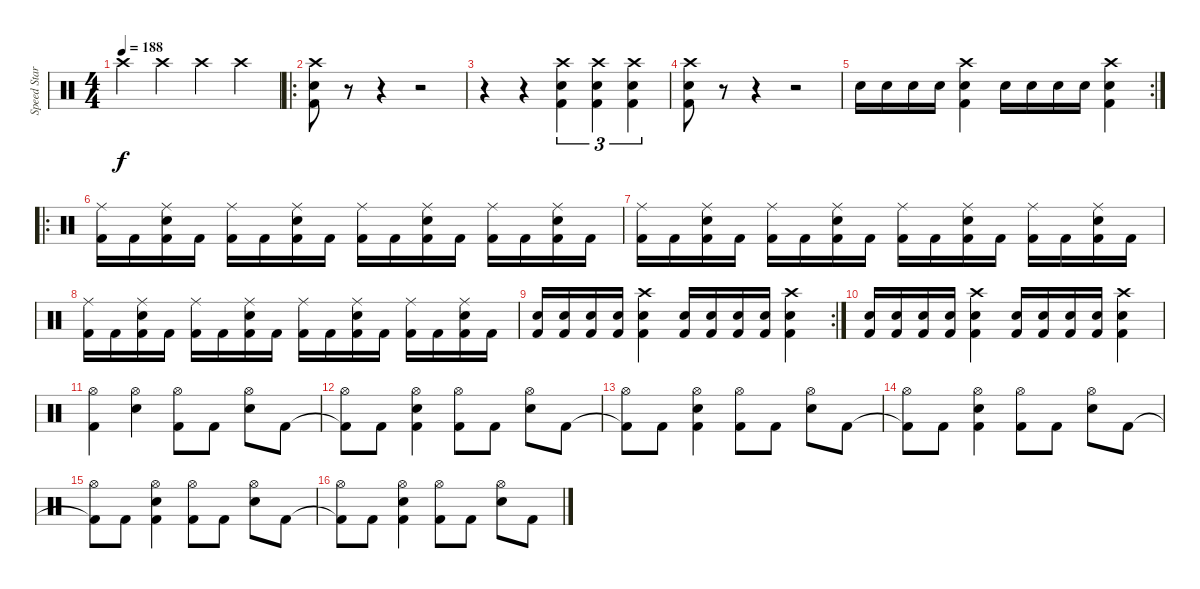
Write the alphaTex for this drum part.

\track ("Speed Star Sypan Joe" "Speed Star") {instrument percussion}
\staff {score}
\articulation defaults
\ts (4 4)
\tempo 188
\clef neutral
\ks c "Crash high (hit)".4{dy f} "Crash high (hit)".4 "Crash high (hit)".4 "Crash high (hit)".4
|
\ro
("Electric Snare (hit)" "Kick (hit) 2" "Crash high (hit)").8 r.8 r.4 r.2 |
r.4 r.4 ("Kick (hit) 2" "Electric Snare (hit)" "Crash high (hit)").4{tu (3 2)} ("Kick (hit) 2" "Electric Snare (hit)" "Crash high (hit)").4{tu (3 2)} ("Electric Snare (hit)" "Kick (hit) 2" "Crash high (hit)").4{tu (3 2)} |
("Electric Snare (hit)" "Kick (hit) 2" "Crash high (hit)").8 r.8 r.4 r.2 |
\rc 2 "Electric Snare (hit)".16 "Electric Snare (hit)".16 "Electric Snare (hit)".16 "Electric Snare (hit)".16
("Electric Snare (hit)" "Kick (hit) 2" "Crash high (hit)").4 "Electric Snare (hit)".16 "Electric Snare (hit)".16 "Electric Snare (hit)".16 "Electric Snare (hit)".16 ("Electric Snare (hit)" "Kick (hit) 2" "Crash high (hit)").4 |
\ro
("Kick (hit) 2" "Ride (middle)").16 "Kick (hit) 2".16 ("Kick (hit) 2" "Electric Snare (hit)" "Ride (middle)").16 "Kick (hit) 2".16 ("Kick (hit) 2" "Ride (middle)").16 "Kick (hit) 2".16 ("Kick (hit) 2" "Electric Snare (hit)" "Ride (middle)").16 "Kick (hit) 2".16 ("Kick (hit) 2" "Ride (middle)").16 "Kick (hit) 2".16 ("Kick (hit) 2" "Electric Snare (hit)" "Ride (middle)").16 "Kick (hit) 2".16 ("Kick (hit) 2" "Ride (middle)").16 "Kick (hit) 2".16 ("Kick (hit) 2" "Electric Snare (hit)" "Ride (middle)").16 "Kick (hit) 2".16 |
("Kick (hit) 2" "Ride (middle)").16 "Kick (hit) 2".16 ("Kick (hit) 2" "Electric Snare (hit)" "Ride (middle)").16 "Kick (hit) 2".16 ("Kick (hit) 2" "Ride (middle)").16 "Kick (hit) 2".16 ("Kick (hit) 2" "Electric Snare (hit)" "Ride (middle)").16 "Kick (hit) 2".16 ("Kick (hit) 2" "Ride (middle)").16 "Kick (hit) 2".16 ("Kick (hit) 2" "Electric Snare (hit)" "Ride (middle)").16 "Kick (hit) 2".16 ("Kick (hit) 2" "Ride (middle)").16 "Kick (hit) 2".16 ("Kick (hit) 2" "Electric Snare (hit)" "Ride (middle)").16 "Kick (hit) 2".16 |
("Kick (hit) 2" "Ride (middle)").16 "Kick (hit) 2".16 ("Kick (hit) 2" "Electric Snare (hit)" "Ride (middle)").16 "Kick (hit) 2".16 ("Kick (hit) 2" "Ride (middle)").16 "Kick (hit) 2".16 ("Kick (hit) 2" "Electric Snare (hit)" "Ride (middle)").16 "Kick (hit) 2".16 ("Kick (hit) 2" "Ride (middle)").16 "Kick (hit) 2".16 ("Kick (hit) 2" "Electric Snare (hit)" "Ride (middle)").16 "Kick (hit) 2".16 ("Kick (hit) 2" "Ride (middle)").16 "Kick (hit) 2".16 ("Kick (hit) 2" "Electric Snare (hit)" "Ride (middle)").16 "Kick (hit) 2".16 |
\rc 2
("Kick (hit) 2" "Electric Snare (hit)").16 ("Kick (hit) 2" "Electric Snare (hit)").16 ("Kick (hit) 2" "Electric Snare (hit)").16 ("Kick (hit) 2" "Electric Snare (hit)").16 ("Kick (hit) 2" "Electric Snare (hit)" "Crash high (hit)").4 ("Kick (hit) 2" "Electric Snare (hit)").16 ("Kick (hit) 2" "Electric Snare (hit)").16 ("Kick (hit) 2" "Electric Snare (hit)").16 ("Kick (hit) 2" "Electric Snare (hit)").16 ("Kick (hit) 2" "Electric Snare (hit)" "Crash high (hit)").4 |
("Kick (hit) 2" "Electric Snare (hit)").16 ("Kick (hit) 2" "Electric Snare (hit)").16 ("Kick (hit) 2" "Electric Snare (hit)").16 ("Kick (hit) 2" "Electric Snare (hit)").16 ("Kick (hit) 2" "Electric Snare (hit)" "Crash high (hit)").4 ("Kick (hit) 2" "Electric Snare (hit)").16 ("Kick (hit) 2" "Electric Snare (hit)").16 ("Kick (hit) 2" "Electric Snare (hit)").16 ("Kick (hit) 2" "Electric Snare (hit)").16 ("Kick (hit) 2" "Electric Snare (hit)" "Crash high (hit)").4 |
("Kick (hit) 2" "Hi-Hat (open)").4 ("Electric Snare (hit)" "Hi-Hat (open)").4 ("Kick (hit) 2" "Hi-Hat (open)").8 "Kick (hit) 2".8 ("Electric Snare (hit)" "Hi-Hat (open)").8 "Kick (hit) 2".8 |
("Kick (hit) 2"{t} "Hi-Hat (open)").8 "Kick (hit) 2".8 ("Kick (hit) 2" "Electric Snare (hit)" "Hi-Hat (open)").4 ("Kick (hit) 2" "Hi-Hat (open)").8 "Kick (hit) 2".8 ("Electric Snare (hit)" "Hi-Hat (open)").8 "Kick (hit) 2".8 |
("Kick (hit) 2"{t} "Hi-Hat (open)").8 "Kick (hit) 2".8 ("Kick (hit) 2" "Electric Snare (hit)" "Hi-Hat (open)").4 ("Kick (hit) 2" "Hi-Hat (open)").8 "Kick (hit) 2".8 ("Electric Snare (hit)" "Hi-Hat (open)").8 "Kick (hit) 2".8 |
("Kick (hit) 2"{t} "Hi-Hat (open)").8 "Kick (hit) 2".8 ("Kick (hit) 2" "Electric Snare (hit)" "Hi-Hat (open)").4 ("Kick (hit) 2" "Hi-Hat (open)").8 "Kick (hit) 2".8 ("Electric Snare (hit)" "Hi-Hat (open)").8 "Kick (hit) 2".8 |
("Kick (hit) 2"{t} "Hi-Hat (open)").8 "Kick (hit) 2".8 ("Kick (hit) 2" "Electric Snare (hit)" "Hi-Hat (open)").4 ("Kick (hit) 2" "Hi-Hat (open)").8 "Kick (hit) 2".8 ("Electric Snare (hit)" "Hi-Hat (open)").8 "Kick (hit) 2".8 |
("Kick (hit) 2"{t} "Hi-Hat (open)").8 "Kick (hit) 2".8 ("Kick (hit) 2" "Electric Snare (hit)" "Hi-Hat (open)").4 ("Kick (hit) 2" "Hi-Hat (open)").8 "Kick (hit) 2".8 ("Electric Snare (hit)" "Hi-Hat (open)").8 "Kick (hit) 2".8
